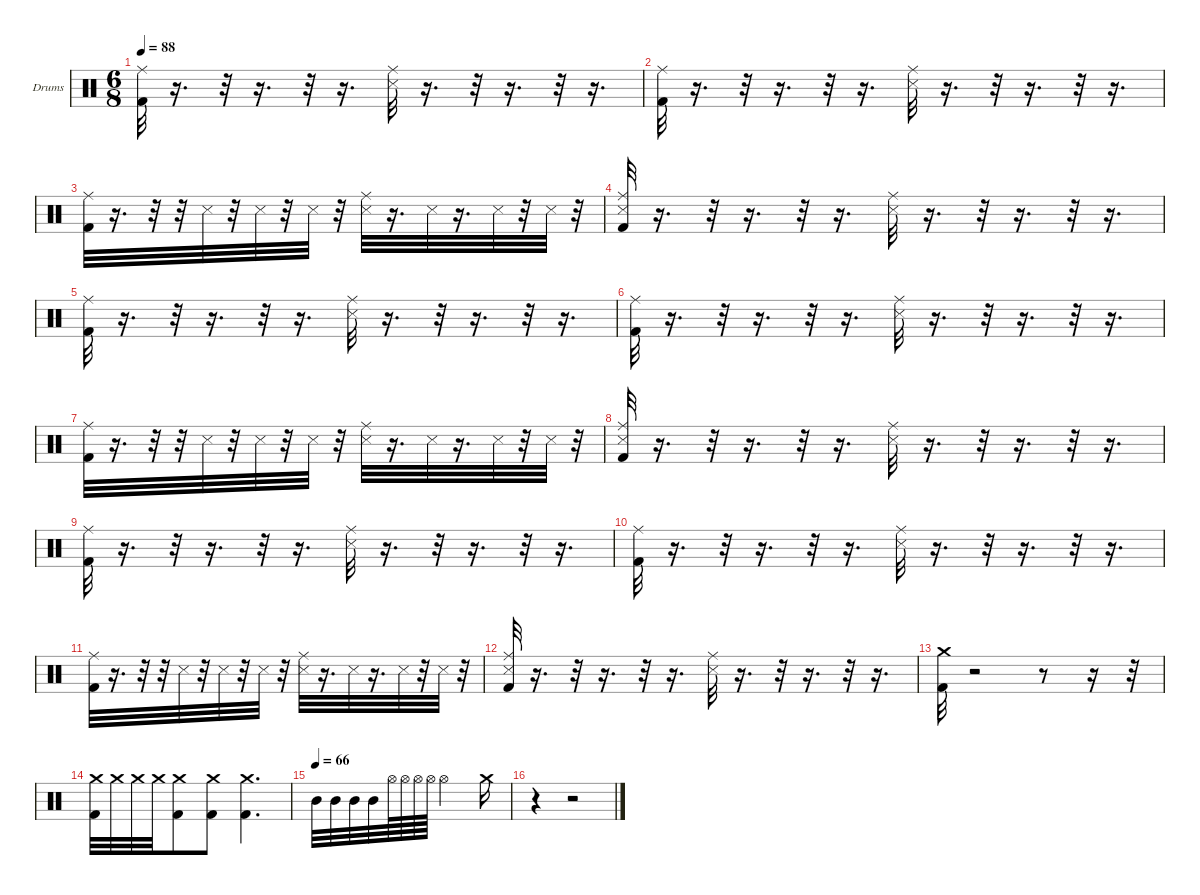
\hideDynamics
\bracketExtendMode nobrackets
\firstSystemTrackNameOrientation horizontal
\otherSystemsTrackNameOrientation horizontal
\track ("Drumkit" "Drums") {instrument percussion}
\staff {score}
\articulation defaults
\ts (6 8)
\tempo 88
\clef neutral
\ks c
("Kick (hit) 2" "Ride (middle)").32{dy fff} r.16{d} r.32 r.16{d} r.32 r.16{d} ("Snare (side stick) 3" "Ride (middle)").32{dy ff} r.16{d} r.32 r.16{d} r.32 r.16{d} |
("Kick (hit) 2" "Ride (middle)").32{dy fff} r.16{d} r.32 r.16{d} r.32 r.16{d} ("Snare (side stick) 3" "Ride (middle)").32{dy ff} r.16{d} r.32 r.16{d} r.32 r.16{d} |
("Kick (hit) 2" "Ride (middle)").32{dy fff} r.16{d} r.32 r.32 "Snare (side stick) 3".32{dy f} r.32 "Snare (side stick) 3".32{dy ff} r.32 "Snare (side stick) 3".32{dy f} r.32 ("Snare (side stick) 3" "Ride (middle)").32{dy ff} r.16{d} "Snare (side stick) 3".32 r.16{d} "Snare (side stick) 3".32{dy f} r.32 "Snare (side stick) 3".32{dy mf} r.32 |
("Kick (hit) 2" "Snare (side stick) 3" "Ride (middle)").32{dy fff} r.16{d} r.32 r.16{d} r.32 r.16{d} ("Snare (side stick) 3" "Ride (middle)").32{dy ff} r.16{d} r.32 r.16{d} r.32 r.16{d} |
("Kick (hit) 2" "Ride (middle)").32{dy fff} r.16{d} r.32 r.16{d} r.32 r.16{d} ("Snare (side stick) 3" "Ride (middle)").32{dy ff} r.16{d} r.32 r.16{d} r.32 r.16{d} |
("Kick (hit) 2" "Ride (middle)").32{dy fff} r.16{d} r.32 r.16{d} r.32 r.16{d} ("Snare (side stick) 3" "Ride (middle)").32{dy ff} r.16{d} r.32 r.16{d} r.32 r.16{d} |
("Kick (hit) 2" "Ride (middle)").32{dy fff} r.16{d} r.32 r.32 "Snare (side stick) 3".32{dy f} r.32 "Snare (side stick) 3".32{dy ff} r.32 "Snare (side stick) 3".32{dy f} r.32 ("Snare (side stick) 3" "Ride (middle)").32{dy ff} r.16{d} "Snare (side stick) 3".32 r.16{d} "Snare (side stick) 3".32{dy f} r.32 "Snare (side stick) 3".32{dy mf} r.32 |
("Kick (hit) 2" "Snare (side stick) 3" "Ride (middle)").32{dy fff} r.16{d} r.32 r.16{d} r.32 r.16{d} ("Snare (side stick) 3" "Ride (middle)").32{dy ff} r.16{d} r.32 r.16{d} r.32 r.16{d} |
("Kick (hit) 2" "Ride (middle)").32{dy fff} r.16{d} r.32 r.16{d} r.32 r.16{d} ("Snare (side stick) 3" "Ride (middle)").32{dy ff} r.16{d} r.32 r.16{d} r.32 r.16{d} |
("Kick (hit) 2" "Ride (middle)").32{dy fff} r.16{d} r.32 r.16{d} r.32 r.16{d} ("Snare (side stick) 3" "Ride (middle)").32{dy ff} r.16{d} r.32 r.16{d} r.32 r.16{d} |
("Kick (hit) 2" "Ride (middle)").32{dy fff} r.16{d} r.32 r.32 "Snare (side stick) 3".32{dy f} r.32 "Snare (side stick) 3".32{dy ff} r.32 "Snare (side stick) 3".32{dy f} r.32 ("Snare (side stick) 3" "Ride (middle)").32{dy ff} r.16{d} "Snare (side stick) 3".32 r.16{d} "Snare (side stick) 3".32{dy f} r.32 "Snare (side stick) 3".32{dy mf} r.32 |
("Kick (hit) 2" "Snare (side stick) 3" "Ride (middle)").32{dy fff} r.16{d} r.32 r.16{d} r.32 r.16{d} ("Snare (side stick) 3" "Ride (middle)").32{dy ff} r.16{d} r.32 r.16{d} r.32 r.16{d} |
("Kick (hit) 2" "Crash medium (hit)").32{dy fff} r.2 r.8 r.16 r.32 |
("Kick (hit) 2" "Crash medium (hit)").32{dy f} "Crash medium (hit)".32 "Crash medium (hit)".32 "Crash medium (hit)".32 ("Kick (hit) 2" "Crash medium (hit)").8 ("Kick (hit) 2" "Crash medium (hit)").8 ("Kick (hit) 2" "Crash medium (hit)").4{d} |
\tempo (66)
"Mid Tom (hit)".32 "Mid Tom (hit)".32 "Mid Tom (hit)".32 "Mid Tom (hit)".32 "Hi-Hat (open)".64 "Hi-Hat (open)".64 "Hi-Hat (open)".64 "Hi-Hat (open)".64 "Hi-Hat (open)".2 "Crash medium (hit)".16 |
r.4 r.2
